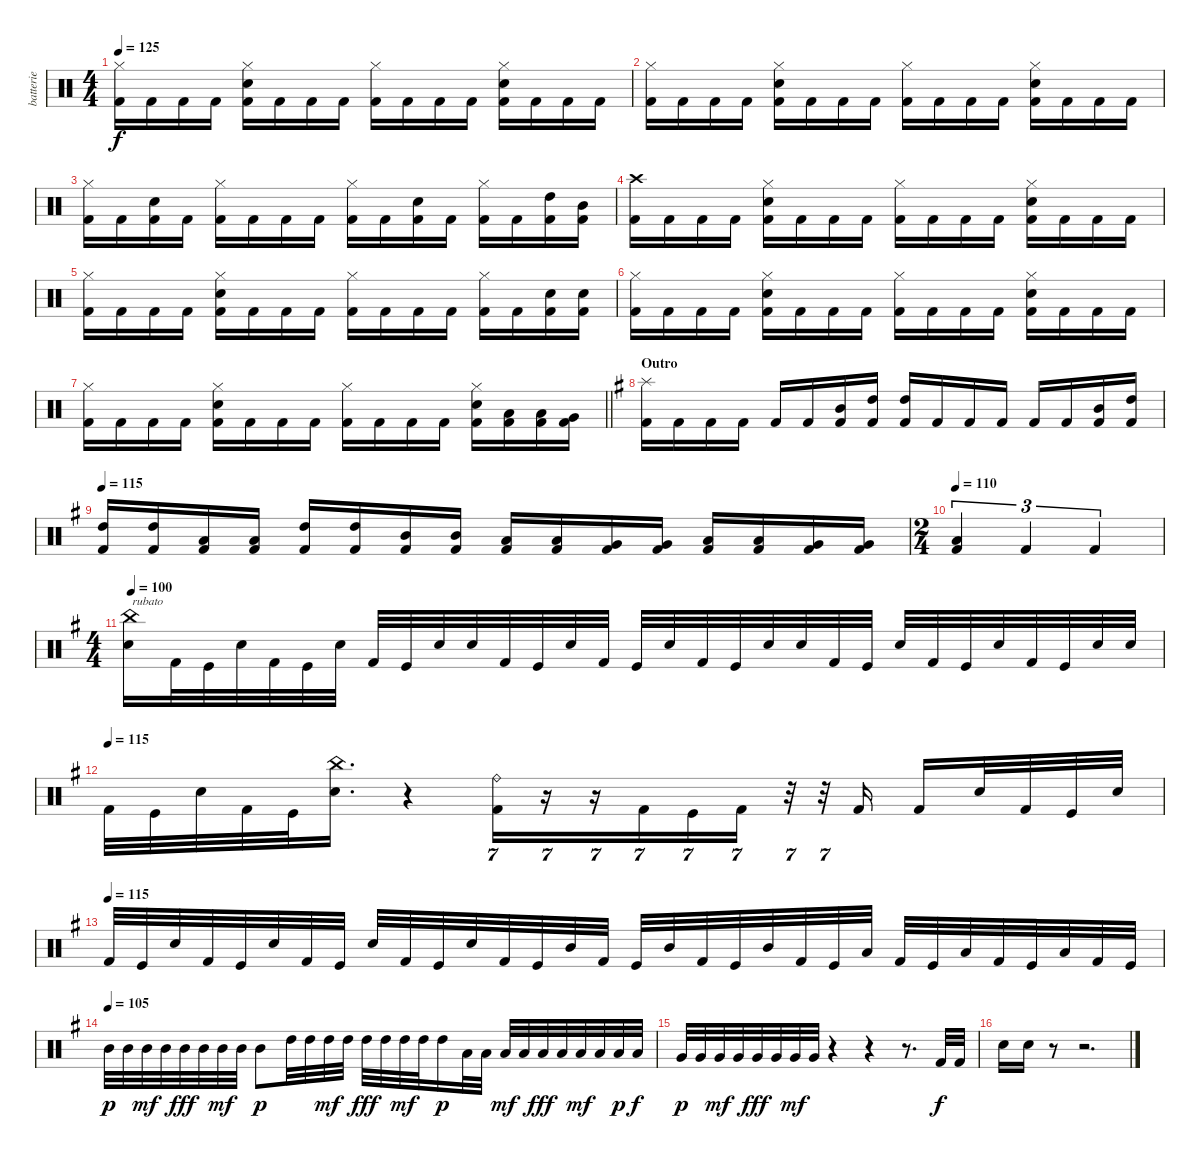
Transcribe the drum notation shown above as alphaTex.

\track ("batterie" "batterie") {instrument percussion}
\staff {score}
\articulation defaults
\ts (4 4)
\tempo 125
\clef neutral
\ks aminor
("Hi-Hat (closed)" "Kick (hit) 2").16{dy f} "Kick (hit) 2".16 "Kick (hit) 2".16 "Kick (hit) 2".16 ("Hi-Hat (closed)" "Electric Snare (hit)" "Kick (hit) 2").16 "Kick (hit) 2".16 "Kick (hit) 2".16 "Kick (hit) 2".16 ("Hi-Hat (closed)" "Kick (hit) 2").16 "Kick (hit) 2".16 "Kick (hit) 2".16 "Kick (hit) 2".16 ("Hi-Hat (closed)" "Electric Snare (hit)" "Kick (hit) 2").16 "Kick (hit) 2".16 "Kick (hit) 2".16 "Kick (hit) 2".16 |
("Hi-Hat (closed)" "Kick (hit) 2").16 "Kick (hit) 2".16 "Kick (hit) 2".16 "Kick (hit) 2".16 ("Hi-Hat (closed)" "Electric Snare (hit)" "Kick (hit) 2").16 "Kick (hit) 2".16 "Kick (hit) 2".16 "Kick (hit) 2".16 ("Hi-Hat (closed)" "Kick (hit) 2").16 "Kick (hit) 2".16 "Kick (hit) 2".16 "Kick (hit) 2".16 ("Hi-Hat (closed)" "Electric Snare (hit)" "Kick (hit) 2").16 "Kick (hit) 2".16 "Kick (hit) 2".16 "Kick (hit) 2".16 |
("Hi-Hat (closed)" "Kick (hit) 2").16 "Kick (hit) 2".16 ("Electric Snare (hit)" "Kick (hit) 2").16 "Kick (hit) 2".16 ("Hi-Hat (closed)" "Kick (hit) 2").16 "Kick (hit) 2".16 "Kick (hit) 2".16 "Kick (hit) 2".16 ("Hi-Hat (closed)" "Kick (hit) 2").16 "Kick (hit) 2".16 ("Electric Snare (hit)" "Kick (hit) 2").16 "Kick (hit) 2".16 ("Hi-Hat (closed)" "Kick (hit) 2").16 "Kick (hit) 2".16 ("High Tom (hit)" "Kick (hit) 2").16 ("Mid Tom (hit)" "Kick (hit) 2").16 |
("Crash high (hit)" "Kick (hit) 2").16 "Kick (hit) 2".16 "Kick (hit) 2".16 "Kick (hit) 2".16 ("Hi-Hat (closed)" "Electric Snare (hit)" "Kick (hit) 2").16 "Kick (hit) 2".16 "Kick (hit) 2".16 "Kick (hit) 2".16 ("Hi-Hat (closed)" "Kick (hit) 2").16 "Kick (hit) 2".16 "Kick (hit) 2".16 "Kick (hit) 2".16 ("Hi-Hat (closed)" "Electric Snare (hit)" "Kick (hit) 2").16 "Kick (hit) 2".16 "Kick (hit) 2".16 "Kick (hit) 2".16 |
("Hi-Hat (closed)" "Kick (hit) 2").16 "Kick (hit) 2".16 "Kick (hit) 2".16 "Kick (hit) 2".16 ("Hi-Hat (closed)" "Electric Snare (hit)" "Kick (hit) 2").16 "Kick (hit) 2".16 "Kick (hit) 2".16 "Kick (hit) 2".16 ("Hi-Hat (closed)" "Kick (hit) 2").16 "Kick (hit) 2".16 "Kick (hit) 2".16 "Kick (hit) 2".16 ("Hi-Hat (closed)" "Kick (hit) 2").16 "Kick (hit) 2".16 ("Electric Snare (hit)" "Kick (hit) 2").16 ("Electric Snare (hit)" "Kick (hit) 2").16 |
("Hi-Hat (closed)" "Kick (hit) 2").16 "Kick (hit) 2".16 "Kick (hit) 2".16 "Kick (hit) 2".16 ("Hi-Hat (closed)" "Electric Snare (hit)" "Kick (hit) 2").16 "Kick (hit) 2".16 "Kick (hit) 2".16 "Kick (hit) 2".16 ("Hi-Hat (closed)" "Kick (hit) 2").16 "Kick (hit) 2".16 "Kick (hit) 2".16 "Kick (hit) 2".16 ("Hi-Hat (closed)" "Electric Snare (hit)" "Kick (hit) 2").16 "Kick (hit) 2".16 "Kick (hit) 2".16 "Kick (hit) 2".16 |
\barLineRight lightlight
("Hi-Hat (closed)" "Kick (hit) 2").16 "Kick (hit) 2".16 "Kick (hit) 2".16 "Kick (hit) 2".16 ("Hi-Hat (closed)" "Electric Snare (hit)" "Kick (hit) 2").16 "Kick (hit) 2".16 "Kick (hit) 2".16 "Kick (hit) 2".16 ("Hi-Hat (closed)" "Kick (hit) 2").16 "Kick (hit) 2".16 "Kick (hit) 2".16 "Kick (hit) 2".16 ("Hi-Hat (closed)" "Electric Snare (hit)" "Kick (hit) 2").16 ("Low Tom (hit)" "Kick (hit) 2").16 ("Low Tom (hit)" "Kick (hit) 2").16 ("Very Low Tom (hit)" "Kick (hit) 2").16 |
\section ("" "Outro")
\ks eminor
("Splash (hit)" "Kick (hit) 2").16 "Kick (hit) 2".16 "Kick (hit) 2".16 "Kick (hit) 2".16 "Kick (hit) 2".16 "Kick (hit) 2".16 ("Mid Tom (hit)" "Kick (hit) 2").16 ("High Tom (hit)" "Kick (hit) 2").16 ("High Tom (hit)" "Kick (hit) 2").16 "Kick (hit) 2".16 "Kick (hit) 2".16 "Kick (hit) 2".16 "Kick (hit) 2".16 "Kick (hit) 2".16 ("Mid Tom (hit)" "Kick (hit) 2").16 ("High Tom (hit)" "Kick (hit) 2").16 |
\tempo 115
("High Tom (hit)" "Kick (hit) 2").16 ("High Tom (hit)" "Kick (hit) 2").16 ("Low Tom (hit)" "Kick (hit) 2").16 ("Low Tom (hit)" "Kick (hit) 2").16 ("High Tom (hit)" "Kick (hit) 2").16 ("High Tom (hit)" "Kick (hit) 2").16 ("Mid Tom (hit)" "Kick (hit) 2").16 ("Mid Tom (hit)" "Kick (hit) 2").16 ("Low Tom (hit)" "Kick (hit) 2").16 ("Low Tom (hit)" "Kick (hit) 2").16 ("Very Low Tom (hit)" "Kick (hit) 2").16 ("Very Low Tom (hit)" "Kick (hit) 2").16 ("Low Tom (hit)" "Kick (hit) 2").16 ("Low Tom (hit)" "Kick (hit) 2").16 ("Very Low Tom (hit)" "Kick (hit) 2").16 ("Very Low Tom (hit)" "Kick (hit) 2").16 |
\ts (2 4)
\tempo 110
("Low Floor Tom (hit)" "Kick (hit) 2").4{tu (3 2)} "Kick (hit) 2".4{tu (3 2)} "Kick (hit) 2".4{tu (3 2)} |
\ts (4 4)
\tempo 100
("China (hit)" "Electric Snare (hit)").16{txt "rubato"} "Kick (hit) 2".32 "Kick (hit)".32 "Electric Snare (hit)".32 "Kick (hit) 2".32 "Kick (hit)".32 "Electric Snare (hit)".32 "Kick (hit) 2".32 "Kick (hit)".32 "Electric Snare (hit)".32 "Electric Snare (hit)".32 "Kick (hit) 2".32 "Kick (hit)".32 "Electric Snare (hit)".32 "Kick (hit) 2".32 "Kick (hit)".32 "Electric Snare (hit)".32 "Kick (hit) 2".32 "Kick (hit)".32 "Electric Snare (hit)".32 "Electric Snare (hit)".32 "Kick (hit) 2".32 "Kick (hit)".32 "Electric Snare (hit)".32 "Kick (hit) 2".32 "Kick (hit)".32 "Electric Snare (hit)".32 "Kick (hit) 2".32 "Kick (hit)".32 "Electric Snare (hit)".32 "Electric Snare (hit)".32 |
\tempo (115)
"Kick (hit) 2".32 "Kick (hit)".32 "Electric Snare (hit)".32 "Kick (hit) 2".32 "Kick (hit)".32 ("China (hit)" "Electric Snare (hit)").16{d} r.4 ("Ride (bell)" "Kick (hit) 2").16{tu (7 4)} r.16{tu (7 4)} r.16{tu (7 4)} "Kick (hit) 2".16{tu (7 4)} "Kick (hit)".16{tu (7 4)} "Kick (hit) 2".16{tu (7 4)} r.32{tu (7 4)} r.32{tu (7 4)} "Kick (hit) 2".16 "Kick (hit) 2".16 "Electric Snare (hit)".32 "Kick (hit) 2".32 "Kick (hit)".32 "Electric Snare (hit)".32 |
\tempo 125
\tempo (115)
"Kick (hit) 2".32 "Kick (hit)".32 "Electric Snare (hit)".32 "Kick (hit) 2".32 "Kick (hit)".32 "Electric Snare (hit)".32 "Kick (hit) 2".32 "Kick (hit)".32 "Electric Snare (hit)".32 "Kick (hit) 2".32 "Kick (hit)".32 "Electric Snare (hit)".32 "Kick (hit) 2".32 "Kick (hit)".32 "Mid Tom (hit)".32 "Kick (hit) 2".32 "Kick (hit)".32 "Mid Tom (hit)".32 "Kick (hit) 2".32 "Kick (hit)".32 "Mid Tom (hit)".32 "Kick (hit) 2".32 "Kick (hit)".32 "Low Tom (hit)".32 "Kick (hit) 2".32 "Kick (hit)".32 "Low Tom (hit)".32 "Kick (hit) 2".32 "Kick (hit)".32 "Low Tom (hit)".32 "Kick (hit) 2".32 "Kick (hit)".32 |
\tempo (105)
"Mid Tom (hit)".32{dy p} "Mid Tom (hit)".32 "Mid Tom (hit)".32{dy mf} "Mid Tom (hit)".32 "Mid Tom (hit)".32{dy fff} "Mid Tom (hit)".32 "Mid Tom (hit)".32{dy mf} "Mid Tom (hit)".32 "Mid Tom (hit)".8{dy p} "High Tom (hit)".32 "High Tom (hit)".32 "High Tom (hit)".32{dy mf} "High Tom (hit)".32 "High Tom (hit)".32{dy fff} "High Tom (hit)".32 "High Tom (hit)".32{dy mf} "High Tom (hit)".32 "High Tom (hit)".16{dy p} "Low Tom (hit)".32 "Low Tom (hit)".32 "Low Tom (hit)".32{dy mf} "Low Tom (hit)".32 "Low Tom (hit)".32{dy fff} "Low Tom (hit)".32 "Low Tom (hit)".32{dy mf} "Low Tom (hit)".32 "Low Tom (hit)".32{dy p} "Low Tom (hit)".32{dy f} |
"Very Low Tom (hit)".32{dy p} "Very Low Tom (hit)".32 "Very Low Tom (hit)".32{dy mf} "Very Low Tom (hit)".32 "Very Low Tom (hit)".32{dy fff} "Very Low Tom (hit)".32 "Very Low Tom (hit)".32{dy mf} "Very Low Tom (hit)".32 r.4 r.4 r.8{d} "Kick (hit) 2".32{dy f} "Kick (hit) 2".32 |
"Electric Snare (hit)".16 "Electric Snare (hit)".16 r.8 r.2{d}
